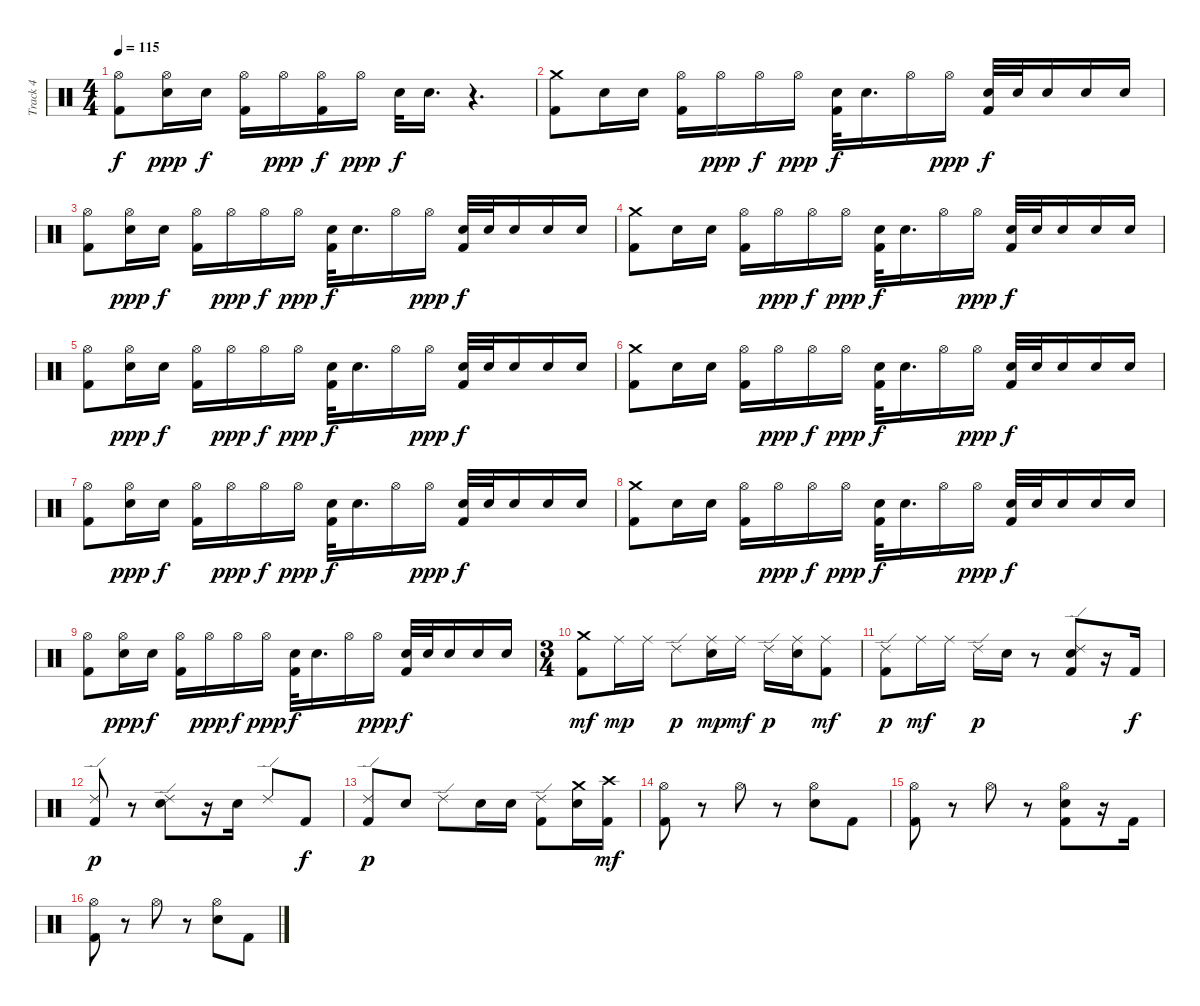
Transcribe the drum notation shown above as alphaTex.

\track ("Track 4" "Track 4") {instrument percussion}
\staff {score}
\articulation defaults
\ts (4 4)
\tempo 115
\clef neutral
\ks c
("Hi-Hat (open)" "Kick (hit) 2").8{dy f} ("Hi-Hat (open)" "Electric Snare (hit)").16{dy ppp} "Electric Snare (hit)".16{dy f} ("Hi-Hat (open)" "Kick (hit) 2").16 "Hi-Hat (open)".16{dy ppp} ("Hi-Hat (open)" "Kick (hit) 2").16{dy f} "Hi-Hat (open)".16{dy ppp} "Electric Snare (hit)".32{dy f} "Electric Snare (hit)".16{d} r.4{d} |
("Crash medium (hit)" "Kick (hit) 2").8 "Electric Snare (hit)".16 "Electric Snare (hit)".16 ("Hi-Hat (open)" "Kick (hit) 2").16 "Hi-Hat (open)".16{dy ppp} "Hi-Hat (open)".16{dy f} "Hi-Hat (open)".16{dy ppp} ("Electric Snare (hit)" "Kick (hit) 2").32{dy f} "Electric Snare (hit)".16{d} "Hi-Hat (open)".16 "Hi-Hat (open)".16{dy ppp} ("Electric Snare (hit)" "Kick (hit) 2").32{dy f} "Electric Snare (hit)".32 "Electric Snare (hit)".16 "Electric Snare (hit)".16 "Electric Snare (hit)".16 |
("Hi-Hat (open)" "Kick (hit) 2").8 ("Hi-Hat (open)" "Electric Snare (hit)").16{dy ppp} "Electric Snare (hit)".16{dy f} ("Hi-Hat (open)" "Kick (hit) 2").16 "Hi-Hat (open)".16{dy ppp} "Hi-Hat (open)".16{dy f} "Hi-Hat (open)".16{dy ppp} ("Electric Snare (hit)" "Kick (hit) 2").32{dy f} "Electric Snare (hit)".16{d} "Hi-Hat (open)".16 "Hi-Hat (open)".16{dy ppp} ("Electric Snare (hit)" "Kick (hit) 2").32{dy f} "Electric Snare (hit)".32 "Electric Snare (hit)".16 "Electric Snare (hit)".16 "Electric Snare (hit)".16 |
("Crash medium (hit)" "Kick (hit) 2").8 "Electric Snare (hit)".16 "Electric Snare (hit)".16 ("Hi-Hat (open)" "Kick (hit) 2").16 "Hi-Hat (open)".16{dy ppp} "Hi-Hat (open)".16{dy f} "Hi-Hat (open)".16{dy ppp} ("Electric Snare (hit)" "Kick (hit) 2").32{dy f} "Electric Snare (hit)".16{d} "Hi-Hat (open)".16 "Hi-Hat (open)".16{dy ppp} ("Electric Snare (hit)" "Kick (hit) 2").32{dy f} "Electric Snare (hit)".32 "Electric Snare (hit)".16 "Electric Snare (hit)".16 "Electric Snare (hit)".16 |
("Hi-Hat (open)" "Kick (hit) 2").8 ("Hi-Hat (open)" "Electric Snare (hit)").16{dy ppp} "Electric Snare (hit)".16{dy f} ("Hi-Hat (open)" "Kick (hit) 2").16 "Hi-Hat (open)".16{dy ppp} "Hi-Hat (open)".16{dy f} "Hi-Hat (open)".16{dy ppp} ("Electric Snare (hit)" "Kick (hit) 2").32{dy f} "Electric Snare (hit)".16{d} "Hi-Hat (open)".16 "Hi-Hat (open)".16{dy ppp} ("Electric Snare (hit)" "Kick (hit) 2").32{dy f} "Electric Snare (hit)".32 "Electric Snare (hit)".16 "Electric Snare (hit)".16 "Electric Snare (hit)".16 |
("Crash medium (hit)" "Kick (hit) 2").8 "Electric Snare (hit)".16 "Electric Snare (hit)".16 ("Hi-Hat (open)" "Kick (hit) 2").16 "Hi-Hat (open)".16{dy ppp} "Hi-Hat (open)".16{dy f} "Hi-Hat (open)".16{dy ppp} ("Electric Snare (hit)" "Kick (hit) 2").32{dy f} "Electric Snare (hit)".16{d} "Hi-Hat (open)".16 "Hi-Hat (open)".16{dy ppp} ("Electric Snare (hit)" "Kick (hit) 2").32{dy f} "Electric Snare (hit)".32 "Electric Snare (hit)".16 "Electric Snare (hit)".16 "Electric Snare (hit)".16 |
("Hi-Hat (open)" "Kick (hit) 2").8 ("Hi-Hat (open)" "Electric Snare (hit)").16{dy ppp} "Electric Snare (hit)".16{dy f} ("Hi-Hat (open)" "Kick (hit) 2").16 "Hi-Hat (open)".16{dy ppp} "Hi-Hat (open)".16{dy f} "Hi-Hat (open)".16{dy ppp} ("Electric Snare (hit)" "Kick (hit) 2").32{dy f} "Electric Snare (hit)".16{d} "Hi-Hat (open)".16 "Hi-Hat (open)".16{dy ppp} ("Electric Snare (hit)" "Kick (hit) 2").32{dy f} "Electric Snare (hit)".32 "Electric Snare (hit)".16 "Electric Snare (hit)".16 "Electric Snare (hit)".16 |
("Crash medium (hit)" "Kick (hit) 2").8 "Electric Snare (hit)".16 "Electric Snare (hit)".16 ("Hi-Hat (open)" "Kick (hit) 2").16 "Hi-Hat (open)".16{dy ppp} "Hi-Hat (open)".16{dy f} "Hi-Hat (open)".16{dy ppp} ("Electric Snare (hit)" "Kick (hit) 2").32{dy f} "Electric Snare (hit)".16{d} "Hi-Hat (open)".16 "Hi-Hat (open)".16{dy ppp} ("Electric Snare (hit)" "Kick (hit) 2").32{dy f} "Electric Snare (hit)".32 "Electric Snare (hit)".16 "Electric Snare (hit)".16 "Electric Snare (hit)".16 |
("Hi-Hat (open)" "Kick (hit) 2").8 ("Hi-Hat (open)" "Electric Snare (hit)").16{dy ppp} "Electric Snare (hit)".16{dy f} ("Hi-Hat (open)" "Kick (hit) 2").16 "Hi-Hat (open)".16{dy ppp} "Hi-Hat (open)".16{dy f} "Hi-Hat (open)".16{dy ppp} ("Electric Snare (hit)" "Kick (hit) 2").32{dy f} "Electric Snare (hit)".16{d} "Hi-Hat (open)".16 "Hi-Hat (open)".16{dy ppp} ("Electric Snare (hit)" "Kick (hit) 2").32{dy f} "Electric Snare (hit)".32 "Electric Snare (hit)".16 "Electric Snare (hit)".16 "Electric Snare (hit)".16 |
\ts (3 4)
("Crash medium (hit)" "Kick (hit) 2").8{dy mf} "Ride (middle)".16{dy mp} "Ride (middle)".16 "Ride (edge) 2".8{dy p} ("Ride (middle)" "Electric Snare (hit)").16{dy mp} "Ride (middle)".16{dy mf} "Ride (edge) 2".16{dy p} ("Ride (middle)" "Electric Snare (hit)").16 ("Ride (middle)" "Kick (hit) 2").8{dy mf} |
("Ride (edge) 2" "Kick (hit) 2").8{dy p} "Ride (middle)".16{dy mf} "Ride (middle)".16 "Ride (edge) 2".16{dy p} "Electric Snare (hit)".16 r.8 ("Ride (edge) 2" "Electric Snare (hit)" "Kick (hit) 2").8 r.16 "Kick (hit) 2".16{dy f} |
("Ride (edge) 2" "Kick (hit) 2").8{dy p} r.8 ("Ride (edge) 2" "Electric Snare (hit)").8 r.16 "Electric Snare (hit)".16 "Ride (edge) 2".8 "Kick (hit) 2".8{dy f} |
("Ride (edge) 2" "Kick (hit) 2").8{dy p} "Electric Snare (hit)".8 "Ride (edge) 2".8 "Electric Snare (hit)".16 "Electric Snare (hit)".16 ("Ride (edge) 2" "Kick (hit) 2").8 ("Crash medium (hit)" "Electric Snare (hit)").16 ("Crash high (hit)" "Kick (hit) 2").16{dy mf} |
("Hi-Hat (open)" "Kick (hit) 2").8 r.8 "Hi-Hat (open)".8 r.8 ("Hi-Hat (open)" "Electric Snare (hit)").8 "Kick (hit) 2".8 |
("Hi-Hat (open)" "Kick (hit) 2").8 r.8 "Hi-Hat (open)".8 r.8 ("Hi-Hat (open)" "Electric Snare (hit)" "Kick (hit) 2").8 r.16 "Kick (hit) 2".16 |
("Hi-Hat (open)" "Kick (hit) 2").8 r.8 "Hi-Hat (open)".8 r.8 ("Hi-Hat (open)" "Electric Snare (hit)").8 "Kick (hit) 2".8
